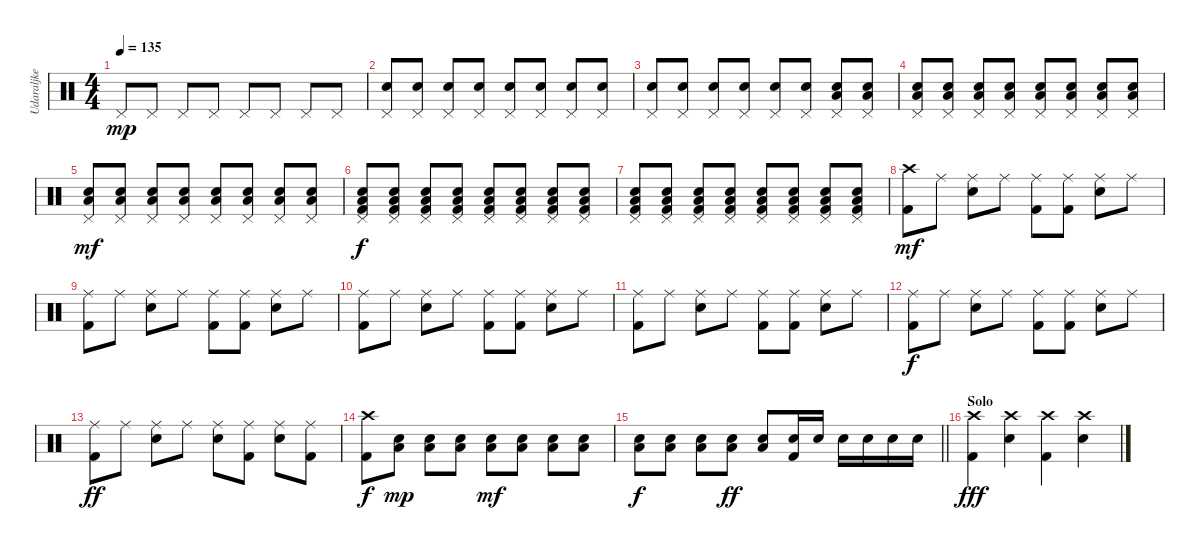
\track ("Udaraljke" "Udaraljke") {instrument percussion}
\staff
\articulation defaults
\ts (4 4)
\tempo 135
\clef neutral
\ks c "Pedal Hi-Hat (hit)".8{dy mp} "Pedal Hi-Hat (hit)".8 "Pedal Hi-Hat (hit)".8 "Pedal Hi-Hat (hit)".8 "Pedal Hi-Hat (hit)".8 "Pedal Hi-Hat (hit)".8 "Pedal Hi-Hat (hit)".8 "Pedal Hi-Hat (hit)".8
|
("Pedal Hi-Hat (hit)" "Snare (hit) 2").8 ("Pedal Hi-Hat (hit)" "Snare (hit) 2").8 ("Pedal Hi-Hat (hit)" "Snare (hit) 2").8 ("Pedal Hi-Hat (hit)" "Snare (hit) 2").8 ("Pedal Hi-Hat (hit)" "Snare (hit) 2").8 ("Pedal Hi-Hat (hit)" "Snare (hit) 2").8 ("Pedal Hi-Hat (hit)" "Snare (hit) 2").8 ("Pedal Hi-Hat (hit)" "Snare (hit) 2").8 |
("Pedal Hi-Hat (hit)" "Snare (hit) 2").8 ("Pedal Hi-Hat (hit)" "Snare (hit) 2").8 ("Pedal Hi-Hat (hit)" "Snare (hit) 2").8 ("Pedal Hi-Hat (hit)" "Snare (hit) 2").8 ("Pedal Hi-Hat (hit)" "Snare (hit) 2").8 ("Pedal Hi-Hat (hit)" "Snare (hit) 2").8 ("Pedal Hi-Hat (hit)" "Snare (hit) 2" "Low Tom (hit)").8 ("Pedal Hi-Hat (hit)" "Snare (hit) 2" "Low Tom (hit)").8 |
("Pedal Hi-Hat (hit)" "Snare (hit) 2" "Low Tom (hit)").8 ("Pedal Hi-Hat (hit)" "Snare (hit) 2" "Low Tom (hit)").8 ("Pedal Hi-Hat (hit)" "Snare (hit) 2" "Low Tom (hit)").8 ("Pedal Hi-Hat (hit)" "Snare (hit) 2" "Low Tom (hit)").8 ("Pedal Hi-Hat (hit)" "Snare (hit) 2" "Low Tom (hit)").8 ("Pedal Hi-Hat (hit)" "Snare (hit) 2" "Low Tom (hit)").8 ("Pedal Hi-Hat (hit)" "Snare (hit) 2" "Low Tom (hit)").8 ("Pedal Hi-Hat (hit)" "Snare (hit) 2" "Low Tom (hit)").8 |
("Pedal Hi-Hat (hit)" "Snare (hit) 2" "Low Tom (hit)").8{dy mf} ("Pedal Hi-Hat (hit)" "Snare (hit) 2" "Low Tom (hit)").8 ("Pedal Hi-Hat (hit)" "Snare (hit) 2" "Low Tom (hit)").8 ("Pedal Hi-Hat (hit)" "Snare (hit) 2" "Low Tom (hit)").8 ("Pedal Hi-Hat (hit)" "Snare (hit) 2" "Low Tom (hit)").8 ("Pedal Hi-Hat (hit)" "Snare (hit) 2" "Low Tom (hit)").8 ("Pedal Hi-Hat (hit)" "Snare (hit) 2" "Low Tom (hit)").8 ("Pedal Hi-Hat (hit)" "Snare (hit) 2" "Low Tom (hit)").8 |
("Kick (hit) 2" "Pedal Hi-Hat (hit)" "Snare (hit) 2" "Low Tom (hit)").8{dy f} ("Kick (hit) 2" "Pedal Hi-Hat (hit)" "Snare (hit) 2" "Low Tom (hit)").8 ("Kick (hit) 2" "Pedal Hi-Hat (hit)" "Snare (hit) 2" "Low Tom (hit)").8 ("Kick (hit) 2" "Pedal Hi-Hat (hit)" "Snare (hit) 2" "Low Tom (hit)").8 ("Kick (hit) 2" "Pedal Hi-Hat (hit)" "Snare (hit) 2" "Low Tom (hit)").8 ("Kick (hit) 2" "Pedal Hi-Hat (hit)" "Snare (hit) 2" "Low Tom (hit)").8 ("Kick (hit) 2" "Pedal Hi-Hat (hit)" "Snare (hit) 2" "Low Tom (hit)").8 ("Kick (hit) 2" "Pedal Hi-Hat (hit)" "Snare (hit) 2" "Low Tom (hit)").8 |
("Kick (hit) 2" "Pedal Hi-Hat (hit)" "Snare (hit) 2" "Low Tom (hit)").8 ("Kick (hit) 2" "Pedal Hi-Hat (hit)" "Snare (hit) 2" "Low Tom (hit)").8 ("Kick (hit) 2" "Pedal Hi-Hat (hit)" "Snare (hit) 2" "Low Tom (hit)").8 ("Kick (hit) 2" "Pedal Hi-Hat (hit)" "Snare (hit) 2" "Low Tom (hit)").8 ("Kick (hit) 2" "Pedal Hi-Hat (hit)" "Snare (hit) 2" "Low Tom (hit)").8 ("Kick (hit) 2" "Pedal Hi-Hat (hit)" "Snare (hit) 2" "Low Tom (hit)").8 ("Kick (hit) 2" "Pedal Hi-Hat (hit)" "Snare (hit) 2" "Low Tom (hit)").8 ("Kick (hit) 2" "Pedal Hi-Hat (hit)" "Snare (hit) 2" "Low Tom (hit)").8 |
("Crash high (hit)" "Kick (hit) 2").8{dy mf} "Ride (middle)".8 ("Ride (middle)" "Snare (hit) 2").8 "Ride (middle)".8 ("Ride (middle)" "Kick (hit) 2").8 ("Ride (middle)" "Kick (hit) 2").8 ("Ride (middle)" "Snare (hit) 2").8 "Ride (middle)".8 |
("Ride (middle)" "Kick (hit) 2").8 "Ride (middle)".8 ("Ride (middle)" "Snare (hit) 2").8 "Ride (middle)".8 ("Ride (middle)" "Kick (hit) 2").8 ("Ride (middle)" "Kick (hit) 2").8 ("Ride (middle)" "Snare (hit) 2").8 "Ride (middle)".8 |
("Ride (middle)" "Kick (hit) 2").8 "Ride (middle)".8 ("Ride (middle)" "Snare (hit) 2").8 "Ride (middle)".8 ("Ride (middle)" "Kick (hit) 2").8 ("Ride (middle)" "Kick (hit) 2").8 ("Ride (middle)" "Snare (hit) 2").8 "Ride (middle)".8 |
("Ride (middle)" "Kick (hit) 2").8 "Ride (middle)".8 ("Ride (middle)" "Snare (hit) 2").8 "Ride (middle)".8 ("Ride (middle)" "Kick (hit) 2").8 ("Ride (middle)" "Kick (hit) 2").8 ("Ride (middle)" "Snare (hit) 2").8 "Ride (middle)".8 |
("Ride (middle)" "Kick (hit) 2").8{dy f} "Ride (middle)".8 ("Ride (middle)" "Snare (hit) 2").8 "Ride (middle)".8 ("Ride (middle)" "Kick (hit) 2").8 ("Ride (middle)" "Kick (hit) 2").8 ("Ride (middle)" "Snare (hit) 2").8 "Ride (middle)".8 |
("Ride (middle)" "Kick (hit) 2").8{dy ff} "Ride (middle)".8 ("Ride (middle)" "Snare (hit) 2").8 "Ride (middle)".8 ("Ride (middle)" "Snare (hit) 2").8 ("Ride (middle)" "Kick (hit) 2").8 ("Ride (middle)" "Snare (hit) 2").8 ("Ride (middle)" "Kick (hit) 2").8 |
("Crash high (hit)" "Kick (hit) 2").8{dy f} ("Low Tom (hit)" "Snare (hit) 2").8{dy mp} ("Low Tom (hit)" "Snare (hit) 2").8 ("Low Tom (hit)" "Snare (hit) 2").8 ("Low Tom (hit)" "Snare (hit) 2").8{dy mf} ("Low Tom (hit)" "Snare (hit) 2").8 ("Low Tom (hit)" "Snare (hit) 2").8 ("Low Tom (hit)" "Snare (hit) 2").8 |
\barLineRight lightlight
("Low Tom (hit)" "Snare (hit) 2").8{dy f} ("Low Tom (hit)" "Snare (hit) 2").8 ("Low Tom (hit)" "Snare (hit) 2").8 ("Low Tom (hit)" "Snare (hit) 2").8{dy ff} ("Low Tom (hit)" "Snare (hit) 2").8 ("Snare (hit) 2" "Kick (hit) 2").16 "Snare (hit) 2".16 "Snare (hit) 2".16 "Snare (hit) 2".16 "Snare (hit) 2".16 "Snare (hit) 2".16 |
\section ("" "Solo")
("Crash high (hit)" "Kick (hit) 2").4{dy fff} ("Crash high (hit)" "Snare (hit) 2").4 ("Crash high (hit)" "Kick (hit) 2").4 ("Crash high (hit)" "Snare (hit) 2").4
